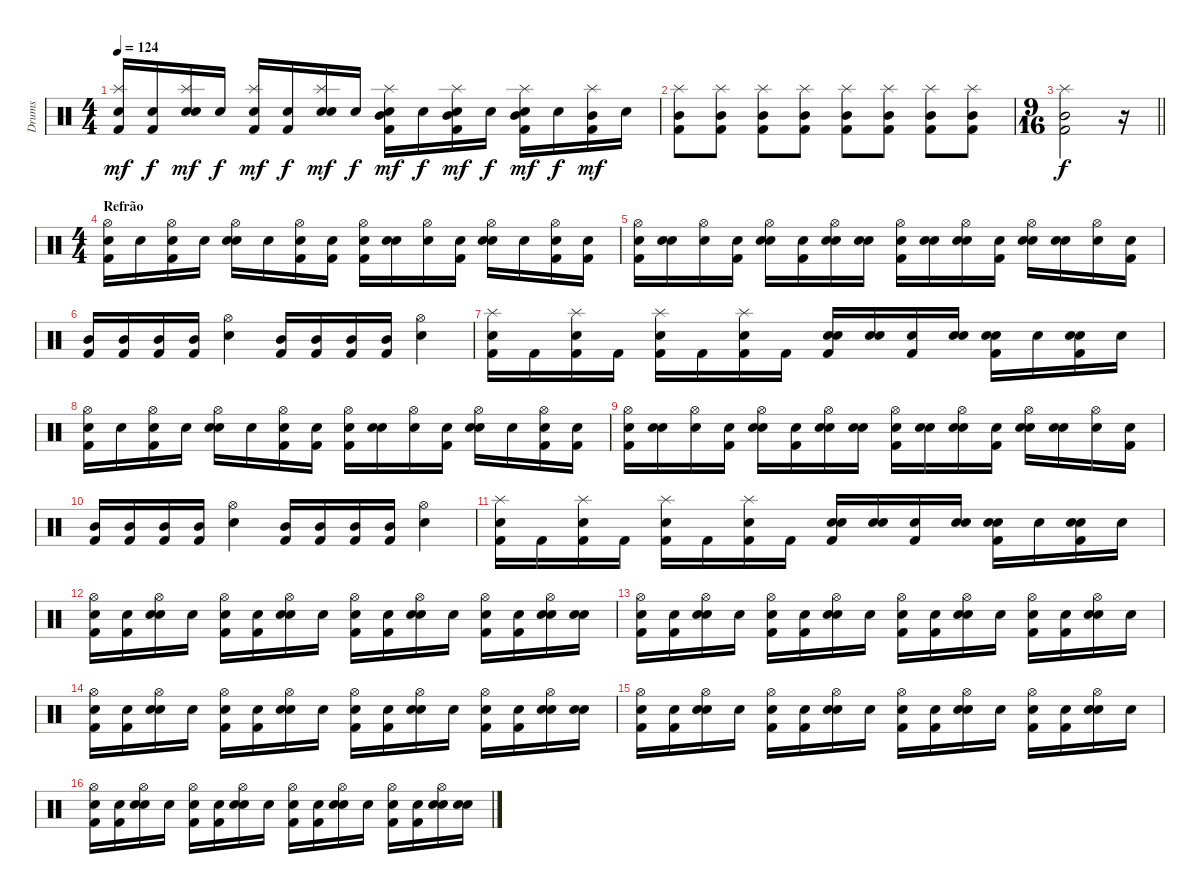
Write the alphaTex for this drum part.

\track ("Drums" "Drums") {instrument percussion}
\staff {score}
\articulation defaults
\ts (4 4)
\tempo 124
\clef neutral
\ks c
("Snare (hit)"{x} "Splash (hit)" "Kick (hit) 2").16{dy mf} ("Snare (hit)"{x} "Kick (hit) 2").16{dy f} ("Snare (hit)"{x} "Splash (hit)" "Electric Snare (hit)").16{dy mf} "Snare (hit)"{x}.16{dy f} ("Snare (hit)"{x} "Splash (hit)" "Kick (hit) 2").16{dy mf} ("Snare (hit)"{x} "Kick (hit) 2").16{dy f} ("Snare (hit)"{x} "Splash (hit)" "Electric Snare (hit)").16{dy mf} "Snare (hit)"{x}.16{dy f} ("Snare (hit)"{x} "Splash (hit)" "Kick (hit) 2" "Mid Tom (hit)").16{dy mf} "Snare (hit)"{x}.16{dy f} ("Snare (hit)"{x} "Splash (hit)" "Kick (hit) 2" "Mid Tom (hit)").16{dy mf} "Snare (hit)"{x}.16{dy f} ("Snare (hit)"{x} "Splash (hit)" "Kick (hit) 2" "Mid Tom (hit)").16{dy mf} "Snare (hit)"{x}.16{dy f} ("Splash (hit)" "Kick (hit) 2" "Mid Tom (hit)").16{dy mf} "Snare (hit)"{x}.16 |
("Splash (hit)" "Kick (hit) 2" "Mid Tom (hit)").8 ("Splash (hit)" "Kick (hit) 2" "Mid Tom (hit)").8 ("Splash (hit)" "Kick (hit) 2" "Mid Tom (hit)").8 ("Splash (hit)" "Kick (hit) 2" "Mid Tom (hit)").8 ("Splash (hit)" "Kick (hit) 2" "Mid Tom (hit)").8 ("Splash (hit)" "Kick (hit) 2" "Mid Tom (hit)").8 ("Splash (hit)" "Kick (hit) 2" "Mid Tom (hit)").8 ("Splash (hit)" "Kick (hit) 2" "Mid Tom (hit)").8 |
\ts (9 16)
\barLineRight lightlight
("Splash (hit)" "Kick (hit) 2" "Mid Tom (hit)").2{dy f} r.16 |
\ts (4 4)
\section ("" "Refrão")
("Snare (hit)"{x} "Hi-Hat (open)" "Kick (hit) 2").16 "Snare (hit)"{x}.16 ("Snare (hit)"{x} "Hi-Hat (open)" "Kick (hit) 2").16 "Snare (hit)"{x}.16 ("Snare (hit)"{x} "Hi-Hat (open)" "Electric Snare (hit)").16 "Snare (hit)"{x}.16 ("Snare (hit)"{x} "Hi-Hat (open)" "Kick (hit) 2").16 ("Snare (hit)"{x} "Kick (hit) 2").16 ("Snare (hit)"{x} "Hi-Hat (open)" "Kick (hit) 2").16 ("Snare (hit)"{x} "Electric Snare (hit)").16 ("Snare (hit)"{x} "Hi-Hat (open)").16 ("Snare (hit)"{x} "Kick (hit) 2").16 ("Snare (hit)"{x} "Hi-Hat (open)" "Electric Snare (hit)").16 "Snare (hit)"{x}.16 ("Snare (hit)"{x} "Hi-Hat (open)" "Kick (hit) 2").16 ("Snare (hit)"{x} "Kick (hit) 2").16 |
("Snare (hit)"{x} "Hi-Hat (open)" "Kick (hit) 2").16 ("Snare (hit)"{x} "Electric Snare (hit)").16 ("Snare (hit)"{x} "Hi-Hat (open)").16 ("Snare (hit)"{x} "Kick (hit) 2").16 ("Snare (hit)"{x} "Hi-Hat (open)" "Electric Snare (hit)").16 ("Snare (hit)"{x} "Kick (hit) 2").16 ("Snare (hit)"{x} "Hi-Hat (open)" "Electric Snare (hit)").16 ("Snare (hit)"{x} "Electric Snare (hit)").16 ("Snare (hit)"{x} "Hi-Hat (open)" "Kick (hit) 2").16 ("Snare (hit)"{x} "Electric Snare (hit)").16 ("Snare (hit)"{x} "Hi-Hat (open)" "Electric Snare (hit)").16 ("Snare (hit)"{x} "Kick (hit) 2").16 ("Snare (hit)"{x} "Hi-Hat (open)" "Electric Snare (hit)").16 ("Snare (hit)"{x} "Electric Snare (hit)").16 ("Snare (hit)"{x} "Hi-Hat (open)").16 ("Snare (hit)"{x} "Kick (hit) 2").16 |
("Mid Tom (hit)" "Kick (hit) 2").16 ("Mid Tom (hit)" "Kick (hit) 2").16 ("Mid Tom (hit)" "Kick (hit) 2").16 ("Mid Tom (hit)" "Kick (hit) 2").16 ("Hi-Hat (open)" "Electric Snare (hit)").4 ("Mid Tom (hit)" "Kick (hit) 2").16 ("Mid Tom (hit)" "Kick (hit) 2").16 ("Mid Tom (hit)" "Kick (hit) 2").16 ("Mid Tom (hit)" "Kick (hit) 2").16 ("Hi-Hat (open)" "Electric Snare (hit)").4 |
("Splash (hit)" "Electric Snare (hit)" "Kick (hit) 2").16 "Kick (hit) 2".16 ("Splash (hit)" "Electric Snare (hit)" "Kick (hit) 2").16 "Kick (hit) 2".16 ("Splash (hit)" "Electric Snare (hit)" "Kick (hit) 2").16 "Kick (hit) 2".16 ("Splash (hit)" "Electric Snare (hit)" "Kick (hit) 2").16 "Kick (hit) 2".16 ("Snare (hit)"{x} "Electric Snare (hit)" "Kick (hit) 2").16 ("Snare (hit)"{x} "Electric Snare (hit)").16 ("Snare (hit)"{x} "Kick (hit) 2").16 ("Snare (hit)"{x} "Electric Snare (hit)").16 ("Snare (hit)"{x} "Electric Snare (hit)" "Kick (hit) 2").16 "Snare (hit)"{x}.16 ("Snare (hit)"{x} "Electric Snare (hit)" "Kick (hit) 2").16 "Snare (hit)"{x}.16 |
("Snare (hit)"{x} "Hi-Hat (open)" "Kick (hit) 2").16 "Snare (hit)"{x}.16 ("Snare (hit)"{x} "Hi-Hat (open)" "Kick (hit) 2").16 "Snare (hit)"{x}.16 ("Snare (hit)"{x} "Hi-Hat (open)" "Electric Snare (hit)").16 "Snare (hit)"{x}.16 ("Snare (hit)"{x} "Hi-Hat (open)" "Kick (hit) 2").16 ("Snare (hit)"{x} "Kick (hit) 2").16 ("Snare (hit)"{x} "Hi-Hat (open)" "Kick (hit) 2").16 ("Snare (hit)"{x} "Electric Snare (hit)").16 ("Snare (hit)"{x} "Hi-Hat (open)").16 ("Snare (hit)"{x} "Kick (hit) 2").16 ("Snare (hit)"{x} "Hi-Hat (open)" "Electric Snare (hit)").16 "Snare (hit)"{x}.16 ("Snare (hit)"{x} "Hi-Hat (open)" "Kick (hit) 2").16 ("Snare (hit)"{x} "Kick (hit) 2").16 |
("Snare (hit)"{x} "Hi-Hat (open)" "Kick (hit) 2").16 ("Snare (hit)"{x} "Electric Snare (hit)").16 ("Snare (hit)"{x} "Hi-Hat (open)").16 ("Snare (hit)"{x} "Kick (hit) 2").16 ("Snare (hit)"{x} "Hi-Hat (open)" "Electric Snare (hit)").16 ("Snare (hit)"{x} "Kick (hit) 2").16 ("Snare (hit)"{x} "Hi-Hat (open)" "Electric Snare (hit)").16 ("Snare (hit)"{x} "Electric Snare (hit)").16 ("Snare (hit)"{x} "Hi-Hat (open)" "Kick (hit) 2").16 ("Snare (hit)"{x} "Electric Snare (hit)").16 ("Snare (hit)"{x} "Hi-Hat (open)" "Electric Snare (hit)").16 ("Snare (hit)"{x} "Kick (hit) 2").16 ("Snare (hit)"{x} "Hi-Hat (open)" "Electric Snare (hit)").16 ("Snare (hit)"{x} "Electric Snare (hit)").16 ("Snare (hit)"{x} "Hi-Hat (open)").16 ("Snare (hit)"{x} "Kick (hit) 2").16 |
("Mid Tom (hit)" "Kick (hit) 2").16 ("Mid Tom (hit)" "Kick (hit) 2").16 ("Mid Tom (hit)" "Kick (hit) 2").16 ("Mid Tom (hit)" "Kick (hit) 2").16 ("Hi-Hat (open)" "Electric Snare (hit)").4 ("Mid Tom (hit)" "Kick (hit) 2").16 ("Mid Tom (hit)" "Kick (hit) 2").16 ("Mid Tom (hit)" "Kick (hit) 2").16 ("Mid Tom (hit)" "Kick (hit) 2").16 ("Hi-Hat (open)" "Electric Snare (hit)").4 |
("Splash (hit)" "Electric Snare (hit)" "Kick (hit) 2").16 "Kick (hit) 2".16 ("Splash (hit)" "Electric Snare (hit)" "Kick (hit) 2").16 "Kick (hit) 2".16 ("Splash (hit)" "Electric Snare (hit)" "Kick (hit) 2").16 "Kick (hit) 2".16 ("Splash (hit)" "Electric Snare (hit)" "Kick (hit) 2").16 "Kick (hit) 2".16 ("Snare (hit)"{x} "Electric Snare (hit)" "Kick (hit) 2").16 ("Snare (hit)"{x} "Electric Snare (hit)").16 ("Snare (hit)"{x} "Kick (hit) 2").16 ("Snare (hit)"{x} "Electric Snare (hit)").16 ("Snare (hit)"{x} "Electric Snare (hit)" "Kick (hit) 2").16 "Snare (hit)"{x}.16 ("Snare (hit)"{x} "Electric Snare (hit)" "Kick (hit) 2").16 "Snare (hit)"{x}.16 |
("Snare (hit)"{x} "Hi-Hat (open)" "Kick (hit) 2").16 ("Snare (hit)"{x} "Kick (hit) 2").16 ("Snare (hit)"{x} "Hi-Hat (open)" "Electric Snare (hit)").16 "Snare (hit)"{x}.16 ("Snare (hit)"{x} "Hi-Hat (open)" "Kick (hit) 2").16 ("Snare (hit)"{x} "Kick (hit) 2").16 ("Snare (hit)"{x} "Hi-Hat (open)" "Electric Snare (hit)").16 "Snare (hit)"{x}.16 ("Snare (hit)"{x} "Hi-Hat (open)" "Kick (hit) 2").16 ("Snare (hit)"{x} "Kick (hit) 2").16 ("Snare (hit)"{x} "Hi-Hat (open)" "Electric Snare (hit)").16 "Snare (hit)"{x}.16 ("Snare (hit)"{x} "Hi-Hat (open)" "Kick (hit) 2").16 ("Snare (hit)"{x} "Kick (hit) 2").16 ("Snare (hit)"{x} "Hi-Hat (open)" "Electric Snare (hit)").16 ("Snare (hit)"{x} "Electric Snare (hit)").16 |
("Snare (hit)"{x} "Hi-Hat (open)" "Kick (hit) 2").16 ("Snare (hit)"{x} "Kick (hit) 2").16 ("Snare (hit)"{x} "Hi-Hat (open)" "Electric Snare (hit)").16 "Snare (hit)"{x}.16 ("Snare (hit)"{x} "Hi-Hat (open)" "Kick (hit) 2").16 ("Snare (hit)"{x} "Kick (hit) 2").16 ("Snare (hit)"{x} "Hi-Hat (open)" "Electric Snare (hit)").16 "Snare (hit)"{x}.16 ("Snare (hit)"{x} "Hi-Hat (open)" "Kick (hit) 2").16 ("Snare (hit)"{x} "Kick (hit) 2").16 ("Snare (hit)"{x} "Hi-Hat (open)" "Electric Snare (hit)").16 "Snare (hit)"{x}.16 ("Snare (hit)"{x} "Hi-Hat (open)" "Kick (hit) 2").16 ("Snare (hit)"{x} "Kick (hit) 2").16 ("Snare (hit)"{x} "Hi-Hat (open)" "Electric Snare (hit)").16 "Snare (hit)"{x}.16 |
("Snare (hit)"{x} "Hi-Hat (open)" "Kick (hit) 2").16 ("Snare (hit)"{x} "Kick (hit) 2").16 ("Snare (hit)"{x} "Hi-Hat (open)" "Electric Snare (hit)").16 "Snare (hit)"{x}.16 ("Snare (hit)"{x} "Hi-Hat (open)" "Kick (hit) 2").16 ("Snare (hit)"{x} "Kick (hit) 2").16 ("Snare (hit)"{x} "Hi-Hat (open)" "Electric Snare (hit)").16 "Snare (hit)"{x}.16 ("Snare (hit)"{x} "Hi-Hat (open)" "Kick (hit) 2").16 ("Snare (hit)"{x} "Kick (hit) 2").16 ("Snare (hit)"{x} "Hi-Hat (open)" "Electric Snare (hit)").16 "Snare (hit)"{x}.16 ("Snare (hit)"{x} "Hi-Hat (open)" "Kick (hit) 2").16 ("Snare (hit)"{x} "Kick (hit) 2").16 ("Snare (hit)"{x} "Hi-Hat (open)" "Electric Snare (hit)").16 ("Snare (hit)"{x} "Electric Snare (hit)").16 |
("Snare (hit)"{x} "Hi-Hat (open)" "Kick (hit) 2").16 ("Snare (hit)"{x} "Kick (hit) 2").16 ("Snare (hit)"{x} "Hi-Hat (open)" "Electric Snare (hit)").16 "Snare (hit)"{x}.16 ("Snare (hit)"{x} "Hi-Hat (open)" "Kick (hit) 2").16 ("Snare (hit)"{x} "Kick (hit) 2").16 ("Snare (hit)"{x} "Hi-Hat (open)" "Electric Snare (hit)").16 "Snare (hit)"{x}.16 ("Snare (hit)"{x} "Hi-Hat (open)" "Kick (hit) 2").16 ("Snare (hit)"{x} "Kick (hit) 2").16 ("Snare (hit)"{x} "Hi-Hat (open)" "Electric Snare (hit)").16 "Snare (hit)"{x}.16 ("Snare (hit)"{x} "Hi-Hat (open)" "Kick (hit) 2").16 ("Snare (hit)"{x} "Kick (hit) 2").16 ("Snare (hit)"{x} "Hi-Hat (open)" "Electric Snare (hit)").16 "Snare (hit)"{x}.16 |
("Snare (hit)"{x} "Hi-Hat (open)" "Kick (hit) 2").16 ("Snare (hit)"{x} "Kick (hit) 2").16 ("Snare (hit)"{x} "Hi-Hat (open)" "Electric Snare (hit)").16 "Snare (hit)"{x}.16 ("Snare (hit)"{x} "Hi-Hat (open)" "Kick (hit) 2").16 ("Snare (hit)"{x} "Kick (hit) 2").16 ("Snare (hit)"{x} "Hi-Hat (open)" "Electric Snare (hit)").16 "Snare (hit)"{x}.16 ("Snare (hit)"{x} "Hi-Hat (open)" "Kick (hit) 2").16 ("Snare (hit)"{x} "Kick (hit) 2").16 ("Snare (hit)"{x} "Hi-Hat (open)" "Electric Snare (hit)").16 "Snare (hit)"{x}.16 ("Snare (hit)"{x} "Hi-Hat (open)" "Kick (hit) 2").16 ("Snare (hit)"{x} "Kick (hit) 2").16 ("Snare (hit)"{x} "Hi-Hat (open)" "Electric Snare (hit)").16 ("Snare (hit)"{x} "Electric Snare (hit)").16
